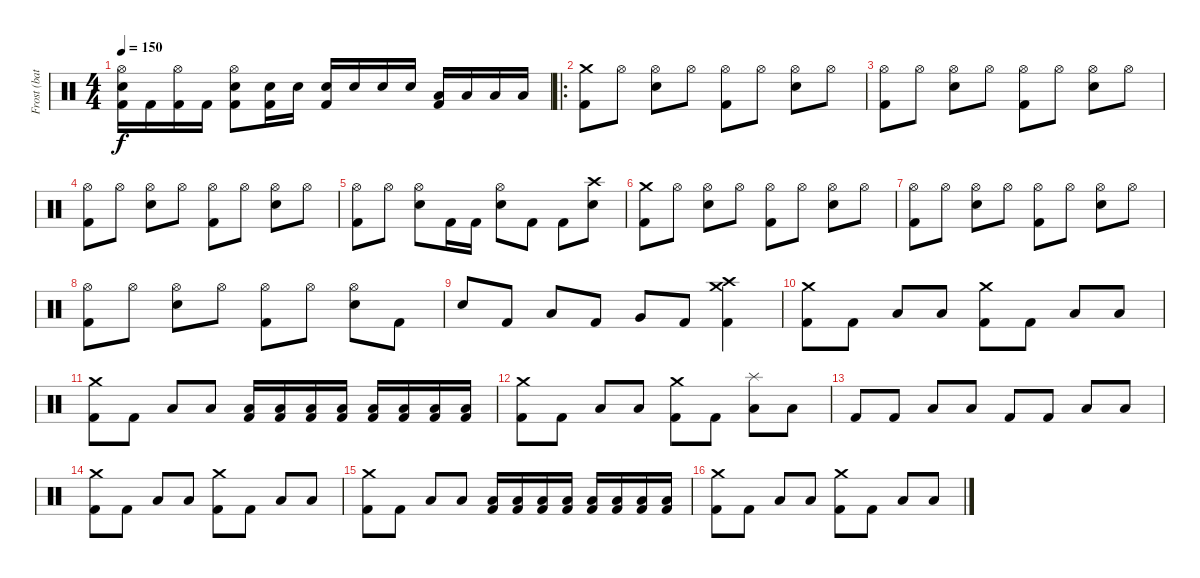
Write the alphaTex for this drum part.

\track ("Frost (battery)" "Frost (bat") {instrument percussion}
\staff {score}
\articulation defaults
\ts (4 4)
\tempo 150
\clef neutral
\ks c
("Hi-Hat (open)" "Electric Snare (hit)" "Kick (hit) 2").16{dy f} "Kick (hit) 2".16 ("Hi-Hat (open)" "Kick (hit) 2").16 "Kick (hit) 2".16 ("Hi-Hat (open)" "Electric Snare (hit)" "Kick (hit) 2").8 ("Electric Snare (hit)" "Kick (hit) 2").16 "Electric Snare (hit)".16 ("Electric Snare (hit)" "Kick (hit) 2").16 "Electric Snare (hit)".16 "Electric Snare (hit)".16 "Electric Snare (hit)".16 ("Low Tom (hit)" "Kick (hit) 2").16 "Low Tom (hit)".16 "Low Tom (hit)".16 "Low Tom (hit)".16 |
\ro
("Crash medium (hit)" "Kick (hit) 2").8 "Hi-Hat (open)".8 ("Hi-Hat (open)" "Electric Snare (hit)").8 "Hi-Hat (open)".8 ("Hi-Hat (open)" "Kick (hit) 2").8 "Hi-Hat (open)".8 ("Hi-Hat (open)" "Electric Snare (hit)").8 "Hi-Hat (open)".8 |
("Hi-Hat (open)" "Kick (hit) 2").8 "Hi-Hat (open)".8 ("Hi-Hat (open)" "Electric Snare (hit)").8 "Hi-Hat (open)".8 ("Hi-Hat (open)" "Kick (hit) 2").8 "Hi-Hat (open)".8 ("Hi-Hat (open)" "Electric Snare (hit)").8 "Hi-Hat (open)".8 |
("Hi-Hat (open)" "Kick (hit) 2").8 "Hi-Hat (open)".8 ("Hi-Hat (open)" "Electric Snare (hit)").8 "Hi-Hat (open)".8 ("Hi-Hat (open)" "Kick (hit) 2").8 "Hi-Hat (open)".8 ("Hi-Hat (open)" "Electric Snare (hit)").8 "Hi-Hat (open)".8 |
("Hi-Hat (open)" "Kick (hit) 2").8 "Hi-Hat (open)".8 ("Hi-Hat (open)" "Electric Snare (hit)").8 "Kick (hit) 2".16 "Kick (hit) 2".16 ("Hi-Hat (open)" "Electric Snare (hit)").8 "Kick (hit) 2".8 "Kick (hit) 2".8 ("Crash high (hit)" "Electric Snare (hit)").8 |
("Crash medium (hit)" "Kick (hit) 2").8 "Hi-Hat (open)".8 ("Hi-Hat (open)" "Electric Snare (hit)").8 "Hi-Hat (open)".8 ("Hi-Hat (open)" "Kick (hit) 2").8 "Hi-Hat (open)".8 ("Hi-Hat (open)" "Electric Snare (hit)").8 "Hi-Hat (open)".8 |
("Hi-Hat (open)" "Kick (hit) 2").8 "Hi-Hat (open)".8 ("Hi-Hat (open)" "Electric Snare (hit)").8 "Hi-Hat (open)".8 ("Hi-Hat (open)" "Kick (hit) 2").8 "Hi-Hat (open)".8 ("Hi-Hat (open)" "Electric Snare (hit)").8 "Hi-Hat (open)".8 |
("Hi-Hat (open)" "Kick (hit) 2").8 "Hi-Hat (open)".8 ("Hi-Hat (open)" "Electric Snare (hit)").8 "Hi-Hat (open)".8 ("Hi-Hat (open)" "Kick (hit) 2").8 "Hi-Hat (open)".8 ("Hi-Hat (open)" "Electric Snare (hit)").8 "Kick (hit) 2".8 |
"Electric Snare (hit)".8 "Kick (hit) 2".8 "Low Tom (hit)".8 "Kick (hit) 2".8 "Very Low Tom (hit)".8 "Kick (hit) 2".8 ("Crash high (hit)" "Crash medium (hit)" "Kick (hit) 2").4 |
("Crash medium (hit)" "Kick (hit) 2").8 "Kick (hit) 2".8 "Low Floor Tom (hit)".8 "Low Floor Tom (hit)".8 ("Crash medium (hit)" "Kick (hit) 2").8 "Kick (hit) 2".8 "Low Floor Tom (hit)".8 "Low Floor Tom (hit)".8 |
("Crash medium (hit)" "Kick (hit) 2").8 "Kick (hit) 2".8 "Low Floor Tom (hit)".8 "Low Floor Tom (hit)".8 ("Low Floor Tom (hit)" "Kick (hit) 2").16 ("Low Floor Tom (hit)" "Kick (hit) 2").16 ("Low Floor Tom (hit)" "Kick (hit) 2").16 ("Low Floor Tom (hit)" "Kick (hit) 2").16 ("Low Floor Tom (hit)" "Kick (hit) 2").16 ("Low Floor Tom (hit)" "Kick (hit) 2").16 ("Low Floor Tom (hit)" "Kick (hit) 2").16 ("Low Floor Tom (hit)" "Kick (hit) 2").16 |
("Crash medium (hit)" "Kick (hit) 2").8 "Kick (hit) 2".8 "Low Floor Tom (hit)".8 "Low Floor Tom (hit)".8 ("Crash medium (hit)" "Kick (hit) 2").8 "Kick (hit) 2".8 ("Splash (hit)" "Low Floor Tom (hit)").8 "Low Floor Tom (hit)".8 |
"Kick (hit) 2".8 "Kick (hit) 2".8 "Low Floor Tom (hit)".8 "Low Floor Tom (hit)".8 "Kick (hit) 2".8 "Kick (hit) 2".8 "Low Floor Tom (hit)".8 "Low Floor Tom (hit)".8 |
("Crash medium (hit)" "Kick (hit) 2").8 "Kick (hit) 2".8 "Low Floor Tom (hit)".8 "Low Floor Tom (hit)".8 ("Crash medium (hit)" "Kick (hit) 2").8 "Kick (hit) 2".8 "Low Floor Tom (hit)".8 "Low Floor Tom (hit)".8 |
("Crash medium (hit)" "Kick (hit) 2").8 "Kick (hit) 2".8 "Low Floor Tom (hit)".8 "Low Floor Tom (hit)".8 ("Low Floor Tom (hit)" "Kick (hit) 2").16 ("Low Floor Tom (hit)" "Kick (hit) 2").16 ("Low Floor Tom (hit)" "Kick (hit) 2").16 ("Low Floor Tom (hit)" "Kick (hit) 2").16 ("Low Floor Tom (hit)" "Kick (hit) 2").16 ("Low Floor Tom (hit)" "Kick (hit) 2").16 ("Low Floor Tom (hit)" "Kick (hit) 2").16 ("Low Floor Tom (hit)" "Kick (hit) 2").16 |
("Crash medium (hit)" "Kick (hit) 2").8 "Kick (hit) 2".8 "Low Floor Tom (hit)".8 "Low Floor Tom (hit)".8 ("Crash medium (hit)" "Kick (hit) 2").8 "Kick (hit) 2".8 "Low Floor Tom (hit)".8 "Low Floor Tom (hit)".8
